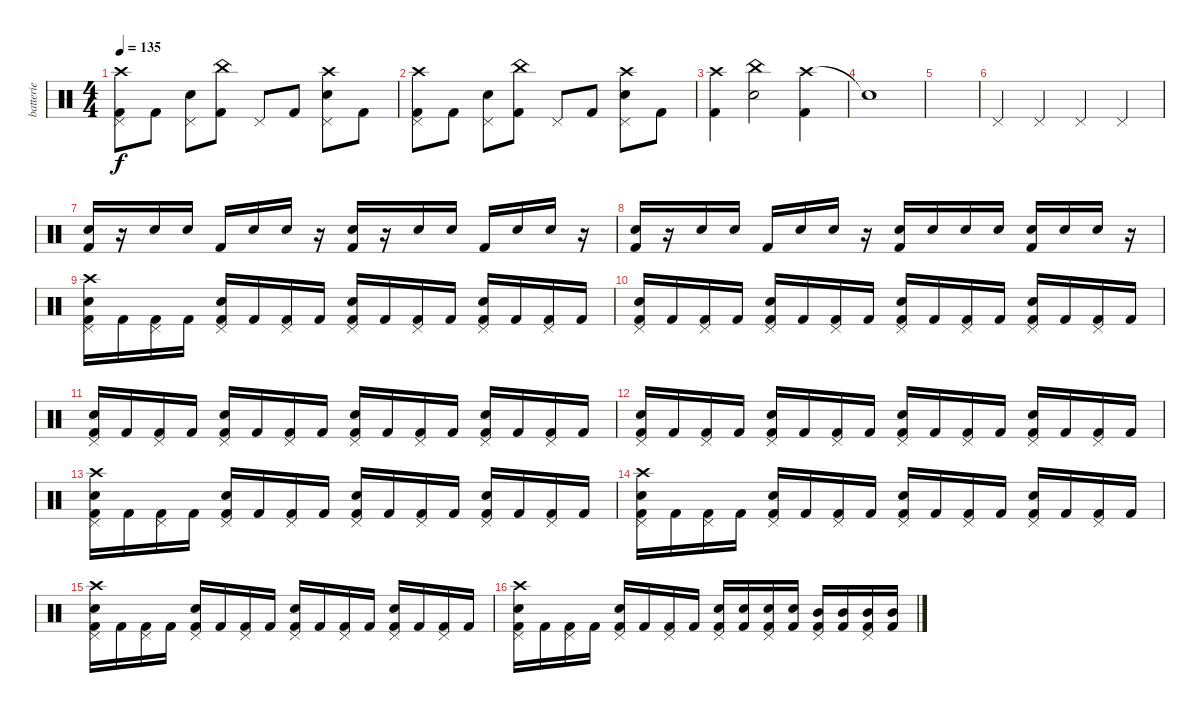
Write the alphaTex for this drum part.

\track ("batterie" "batterie") {instrument percussion}
\staff {score}
\articulation defaults
\ts (4 4)
\tempo 135
\clef neutral
\ks c
("Crash high (hit)" "Kick (hit) 2" "Pedal Hi-Hat (hit)").8{dy f} "Kick (hit) 2".8 ("Snare (hit) 2" "Pedal Hi-Hat (hit)").8 ("China (hit)" "Kick (hit) 2").8 "Pedal Hi-Hat (hit)".8 "Kick (hit) 2".8 ("Crash high (hit)" "Snare (hit) 2" "Pedal Hi-Hat (hit)").8 "Kick (hit) 2".8 |
("Crash high (hit)" "Kick (hit) 2" "Pedal Hi-Hat (hit)").8 "Kick (hit) 2".8 ("Snare (hit) 2" "Pedal Hi-Hat (hit)").8 ("China (hit)" "Kick (hit) 2").8 "Pedal Hi-Hat (hit)".8 "Kick (hit) 2".8 ("Crash high (hit)" "Snare (hit) 2" "Pedal Hi-Hat (hit)").8 "Kick (hit) 2".8 |
("Crash high (hit)" "Kick (hit) 2").4 ("China (hit)" "Snare (hit) 2").2 ("Crash high (hit)" "Kick (hit) 2").4 |
"Snare (hit)"{t}.1 |
|
"Pedal Hi-Hat (hit)".4 "Pedal Hi-Hat (hit)".4 "Pedal Hi-Hat (hit)".4 "Pedal Hi-Hat (hit)".4 |
("Snare (hit) 2" "Kick (hit) 2").16 r.16 "Snare (hit) 2".16 "Snare (hit) 2".16 "Kick (hit) 2".16 "Snare (hit) 2".16 "Snare (hit) 2".16 r.16 ("Snare (hit) 2" "Kick (hit) 2").16 r.16 "Snare (hit) 2".16 "Snare (hit) 2".16 "Kick (hit) 2".16 "Snare (hit) 2".16 "Snare (hit) 2".16 r.16 |
("Snare (hit) 2" "Kick (hit) 2").16 r.16 "Snare (hit) 2".16 "Snare (hit) 2".16 "Kick (hit) 2".16 "Snare (hit) 2".16 "Snare (hit) 2".16 r.16 ("Snare (hit) 2" "Kick (hit) 2").16 "Snare (hit) 2".16 "Snare (hit) 2".16 "Snare (hit) 2".16 ("Snare (hit) 2" "Kick (hit) 2").16 "Snare (hit) 2".16 "Snare (hit) 2".16 r.16 |
("Crash high (hit)" "Snare (hit) 2" "Kick (hit) 2" "Pedal Hi-Hat (hit)").16 "Kick (hit) 2".16 ("Kick (hit) 2" "Pedal Hi-Hat (hit)").16 "Kick (hit) 2".16 ("Snare (hit) 2" "Kick (hit) 2" "Pedal Hi-Hat (hit)").16 "Kick (hit) 2".16 ("Kick (hit) 2" "Pedal Hi-Hat (hit)").16 "Kick (hit) 2".16 ("Snare (hit) 2" "Kick (hit) 2" "Pedal Hi-Hat (hit)").16 "Kick (hit) 2".16 ("Kick (hit) 2" "Pedal Hi-Hat (hit)").16 "Kick (hit) 2".16 ("Snare (hit) 2" "Kick (hit) 2" "Pedal Hi-Hat (hit)").16 "Kick (hit) 2".16 ("Kick (hit) 2" "Pedal Hi-Hat (hit)").16 "Kick (hit) 2".16 |
("Snare (hit) 2" "Kick (hit) 2" "Pedal Hi-Hat (hit)").16 "Kick (hit) 2".16 ("Kick (hit) 2" "Pedal Hi-Hat (hit)").16 "Kick (hit) 2".16 ("Snare (hit) 2" "Kick (hit) 2" "Pedal Hi-Hat (hit)").16 "Kick (hit) 2".16 ("Kick (hit) 2" "Pedal Hi-Hat (hit)").16 "Kick (hit) 2".16 ("Snare (hit) 2" "Kick (hit) 2" "Pedal Hi-Hat (hit)").16 "Kick (hit) 2".16 ("Kick (hit) 2" "Pedal Hi-Hat (hit)").16 "Kick (hit) 2".16 ("Snare (hit) 2" "Kick (hit) 2" "Pedal Hi-Hat (hit)").16 "Kick (hit) 2".16 ("Kick (hit) 2" "Pedal Hi-Hat (hit)").16 "Kick (hit) 2".16 |
("Snare (hit) 2" "Kick (hit) 2" "Pedal Hi-Hat (hit)").16 "Kick (hit) 2".16 ("Kick (hit) 2" "Pedal Hi-Hat (hit)").16 "Kick (hit) 2".16 ("Snare (hit) 2" "Kick (hit) 2" "Pedal Hi-Hat (hit)").16 "Kick (hit) 2".16 ("Kick (hit) 2" "Pedal Hi-Hat (hit)").16 "Kick (hit) 2".16 ("Snare (hit) 2" "Kick (hit) 2" "Pedal Hi-Hat (hit)").16 "Kick (hit) 2".16 ("Kick (hit) 2" "Pedal Hi-Hat (hit)").16 "Kick (hit) 2".16 ("Snare (hit) 2" "Kick (hit) 2" "Pedal Hi-Hat (hit)").16 "Kick (hit) 2".16 ("Kick (hit) 2" "Pedal Hi-Hat (hit)").16 "Kick (hit) 2".16 |
("Snare (hit) 2" "Kick (hit) 2" "Pedal Hi-Hat (hit)").16 "Kick (hit) 2".16 ("Kick (hit) 2" "Pedal Hi-Hat (hit)").16 "Kick (hit) 2".16 ("Snare (hit) 2" "Kick (hit) 2" "Pedal Hi-Hat (hit)").16 "Kick (hit) 2".16 ("Kick (hit) 2" "Pedal Hi-Hat (hit)").16 "Kick (hit) 2".16 ("Snare (hit) 2" "Kick (hit) 2" "Pedal Hi-Hat (hit)").16 "Kick (hit) 2".16 ("Kick (hit) 2" "Pedal Hi-Hat (hit)").16 "Kick (hit) 2".16 ("Snare (hit) 2" "Kick (hit) 2" "Pedal Hi-Hat (hit)").16 "Kick (hit) 2".16 ("Kick (hit) 2" "Pedal Hi-Hat (hit)").16 "Kick (hit) 2".16 |
("Crash high (hit)" "Snare (hit) 2" "Kick (hit) 2" "Pedal Hi-Hat (hit)").16 "Kick (hit) 2".16 ("Kick (hit) 2" "Pedal Hi-Hat (hit)").16 "Kick (hit) 2".16 ("Snare (hit) 2" "Kick (hit) 2" "Pedal Hi-Hat (hit)").16 "Kick (hit) 2".16 ("Kick (hit) 2" "Pedal Hi-Hat (hit)").16 "Kick (hit) 2".16 ("Snare (hit) 2" "Kick (hit) 2" "Pedal Hi-Hat (hit)").16 "Kick (hit) 2".16 ("Kick (hit) 2" "Pedal Hi-Hat (hit)").16 "Kick (hit) 2".16 ("Snare (hit) 2" "Kick (hit) 2" "Pedal Hi-Hat (hit)").16 "Kick (hit) 2".16 ("Kick (hit) 2" "Pedal Hi-Hat (hit)").16 "Kick (hit) 2".16 |
("Crash high (hit)" "Snare (hit) 2" "Kick (hit) 2" "Pedal Hi-Hat (hit)").16 "Kick (hit) 2".16 ("Kick (hit) 2" "Pedal Hi-Hat (hit)").16 "Kick (hit) 2".16 ("Snare (hit) 2" "Kick (hit) 2" "Pedal Hi-Hat (hit)").16 "Kick (hit) 2".16 ("Kick (hit) 2" "Pedal Hi-Hat (hit)").16 "Kick (hit) 2".16 ("Snare (hit) 2" "Kick (hit) 2" "Pedal Hi-Hat (hit)").16 "Kick (hit) 2".16 ("Kick (hit) 2" "Pedal Hi-Hat (hit)").16 "Kick (hit) 2".16 ("Snare (hit) 2" "Kick (hit) 2" "Pedal Hi-Hat (hit)").16 "Kick (hit) 2".16 ("Kick (hit) 2" "Pedal Hi-Hat (hit)").16 "Kick (hit) 2".16 |
("Crash high (hit)" "Snare (hit) 2" "Kick (hit) 2" "Pedal Hi-Hat (hit)").16 "Kick (hit) 2".16 ("Kick (hit) 2" "Pedal Hi-Hat (hit)").16 "Kick (hit) 2".16 ("Snare (hit) 2" "Kick (hit) 2" "Pedal Hi-Hat (hit)").16 "Kick (hit) 2".16 ("Kick (hit) 2" "Pedal Hi-Hat (hit)").16 "Kick (hit) 2".16 ("Snare (hit) 2" "Kick (hit) 2" "Pedal Hi-Hat (hit)").16 "Kick (hit) 2".16 ("Kick (hit) 2" "Pedal Hi-Hat (hit)").16 "Kick (hit) 2".16 ("Snare (hit) 2" "Kick (hit) 2" "Pedal Hi-Hat (hit)").16 "Kick (hit) 2".16 ("Kick (hit) 2" "Pedal Hi-Hat (hit)").16 "Kick (hit) 2".16 |
("Crash high (hit)" "Snare (hit) 2" "Kick (hit) 2" "Pedal Hi-Hat (hit)").16 "Kick (hit) 2".16 ("Kick (hit) 2" "Pedal Hi-Hat (hit)").16 "Kick (hit) 2".16 ("Snare (hit) 2" "Kick (hit) 2" "Pedal Hi-Hat (hit)").16 "Kick (hit) 2".16 ("Kick (hit) 2" "Pedal Hi-Hat (hit)").16 "Kick (hit) 2".16 ("Snare (hit) 2" "Kick (hit) 2" "Pedal Hi-Hat (hit)").16 ("Snare (hit) 2" "Kick (hit) 2").16 ("Snare (hit) 2" "Kick (hit) 2" "Pedal Hi-Hat (hit)").16 ("Snare (hit) 2" "Kick (hit) 2").16 ("Mid Tom (hit)" "Kick (hit) 2" "Pedal Hi-Hat (hit)").16 ("Mid Tom (hit)" "Kick (hit) 2").16 ("Mid Tom (hit)" "Kick (hit) 2" "Pedal Hi-Hat (hit)").16 ("Mid Tom (hit)" "Kick (hit) 2").16
